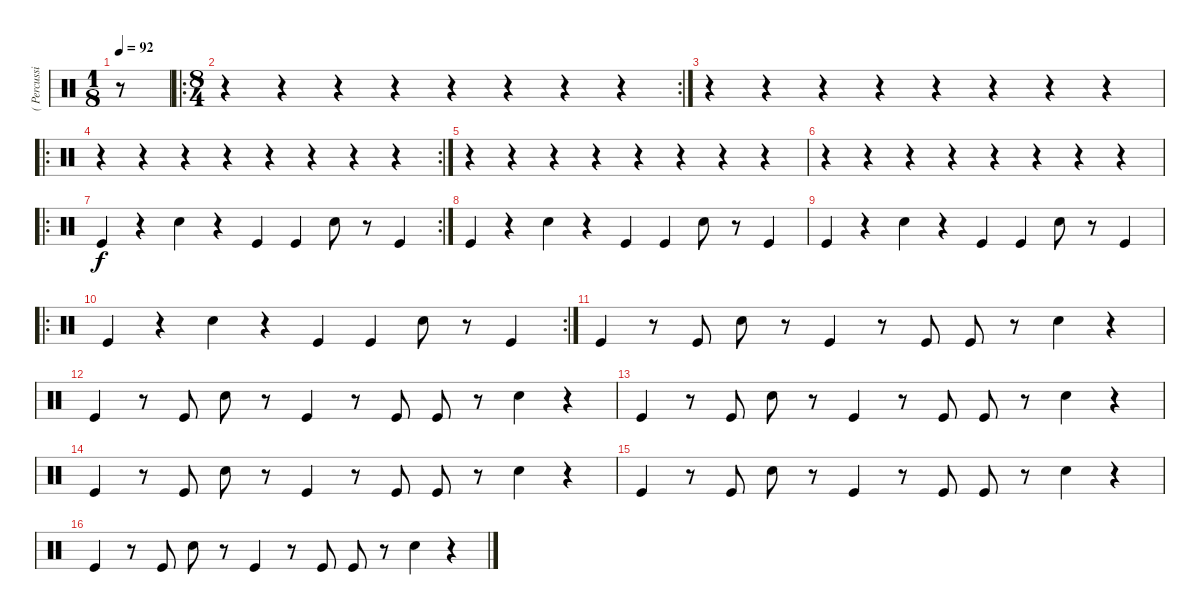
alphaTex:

\track ("( Percussion )" "( Percussi") {instrument percussion}
\staff {score}
\articulation defaults
\ts (1 8)
\tempo 92
\clef neutral
\ks c
r.8{dy f} |
\ro
\rc 2
\ts (8 4)
r.4 r.4 r.4 r.4 r.4 r.4 r.4 r.4 |
r.4 r.4 r.4 r.4 r.4 r.4 r.4 r.4 |
\ro
\rc 2
r.4 r.4 r.4 r.4 r.4 r.4 r.4 r.4 |
r.4 r.4 r.4 r.4 r.4 r.4 r.4 r.4 |
r.4 r.4 r.4 r.4 r.4 r.4 r.4 r.4 |
\ro
\rc 2 "Kick (hit)".4
r.4 "Electric Snare (hit)".4 r.4 "Kick (hit)".4 "Kick (hit)".4 "Electric Snare (hit)".8 r.8 "Kick (hit)".4 |
"Kick (hit)".4 r.4 "Electric Snare (hit)".4 r.4 "Kick (hit)".4 "Kick (hit)".4 "Electric Snare (hit)".8 r.8 "Kick (hit)".4 |
"Kick (hit)".4 r.4 "Electric Snare (hit)".4 r.4 "Kick (hit)".4 "Kick (hit)".4 "Electric Snare (hit)".8 r.8 "Kick (hit)".4 |
\ro
\rc 2 "Kick (hit)".4
r.4 "Electric Snare (hit)".4 r.4 "Kick (hit)".4 "Kick (hit)".4 "Electric Snare (hit)".8 r.8 "Kick (hit)".4 |
"Kick (hit)".4 r.8 "Kick (hit)".8 "Electric Snare (hit)".8 r.8 "Kick (hit)".4 r.8 "Kick (hit)".8 "Kick (hit)".8 r.8 "Electric Snare (hit)".4 r.4 |
"Kick (hit)".4 r.8 "Kick (hit)".8 "Electric Snare (hit)".8 r.8 "Kick (hit)".4 r.8 "Kick (hit)".8 "Kick (hit)".8 r.8 "Electric Snare (hit)".4 r.4 |
"Kick (hit)".4 r.8 "Kick (hit)".8 "Electric Snare (hit)".8 r.8 "Kick (hit)".4 r.8 "Kick (hit)".8 "Kick (hit)".8 r.8 "Electric Snare (hit)".4 r.4 |
"Kick (hit)".4 r.8 "Kick (hit)".8 "Electric Snare (hit)".8 r.8 "Kick (hit)".4 r.8 "Kick (hit)".8 "Kick (hit)".8 r.8 "Electric Snare (hit)".4 r.4 |
"Kick (hit)".4 r.8 "Kick (hit)".8 "Electric Snare (hit)".8 r.8 "Kick (hit)".4 r.8 "Kick (hit)".8 "Kick (hit)".8 r.8 "Electric Snare (hit)".4 r.4 |
"Kick (hit)".4 r.8 "Kick (hit)".8 "Electric Snare (hit)".8 r.8 "Kick (hit)".4 r.8 "Kick (hit)".8 "Kick (hit)".8 r.8 "Electric Snare (hit)".4 r.4
